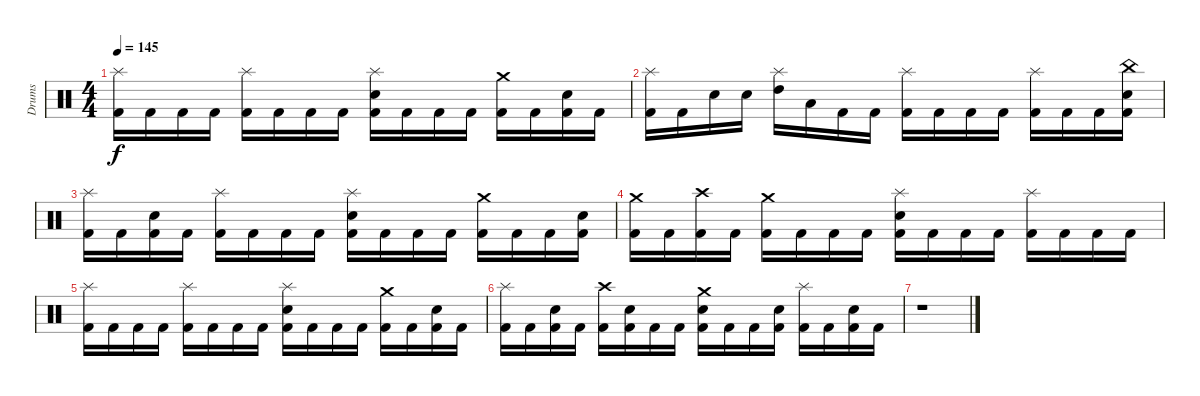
\track ("Drums" "Drums") {instrument percussion}
\staff {score}
\articulation defaults
\ts (4 4)
\tempo 145
\clef neutral
\ks c
("Splash (hit)" "Kick (hit) 2").16{dy f} "Kick (hit) 2".16 "Kick (hit) 2".16 "Kick (hit) 2".16 ("Splash (hit)" "Kick (hit) 2").16 "Kick (hit) 2".16 "Kick (hit) 2".16 "Kick (hit) 2".16 ("Splash (hit)" "Electric Snare (hit)" "Kick (hit) 2").16 "Kick (hit) 2".16 "Kick (hit) 2".16 "Kick (hit) 2".16 ("Crash medium (hit)" "Kick (hit) 2").16 "Kick (hit) 2".16 ("Electric Snare (hit)" "Kick (hit) 2").16 "Kick (hit) 2".16 |
("Splash (hit)" "Kick (hit) 2").16 "Kick (hit) 2".16 "Electric Snare (hit)".16 "Electric Snare (hit)".16 ("Splash (hit)" "High Tom (hit)").16 "Low Tom (hit)".16 "Kick (hit) 2".16 "Kick (hit) 2".16 ("Splash (hit)" "Kick (hit) 2").16 "Kick (hit) 2".16 "Kick (hit) 2".16 "Kick (hit) 2".16 ("Splash (hit)" "Kick (hit) 2").16 "Kick (hit) 2".16 "Kick (hit) 2".16 ("China (hit)" "Electric Snare (hit)" "Kick (hit) 2").16 |
("Splash (hit)" "Kick (hit) 2").16 "Kick (hit) 2".16 ("Electric Snare (hit)" "Kick (hit) 2").16 "Kick (hit) 2".16 ("Splash (hit)" "Kick (hit) 2").16 "Kick (hit) 2".16 "Kick (hit) 2".16 "Kick (hit) 2".16 ("Splash (hit)" "Electric Snare (hit)" "Kick (hit) 2").16 "Kick (hit) 2".16 "Kick (hit) 2".16 "Kick (hit) 2".16 ("Crash medium (hit)" "Kick (hit) 2").16 "Kick (hit) 2".16 "Kick (hit) 2".16 ("Electric Snare (hit)" "Kick (hit) 2").16 |
("Crash medium (hit)" "Kick (hit) 2").16 "Kick (hit) 2".16 ("Crash high (hit)" "Kick (hit) 2").16 "Kick (hit) 2".16 ("Crash medium (hit)" "Kick (hit) 2").16 "Kick (hit) 2".16 "Kick (hit) 2".16 "Kick (hit) 2".16 ("Splash (hit)" "Electric Snare (hit)" "Kick (hit) 2").16 "Kick (hit) 2".16 "Kick (hit) 2".16 "Kick (hit) 2".16 ("Splash (hit)" "Kick (hit) 2").16 "Kick (hit) 2".16 "Kick (hit) 2".16 "Kick (hit) 2".16 |
("Splash (hit)" "Kick (hit) 2").16 "Kick (hit) 2".16 "Kick (hit) 2".16 "Kick (hit) 2".16 ("Splash (hit)" "Kick (hit) 2").16 "Kick (hit) 2".16 "Kick (hit) 2".16 "Kick (hit) 2".16 ("Splash (hit)" "Electric Snare (hit)" "Kick (hit) 2").16 "Kick (hit) 2".16 "Kick (hit) 2".16 "Kick (hit) 2".16 ("Crash medium (hit)" "Kick (hit) 2").16 "Kick (hit) 2".16 ("Electric Snare (hit)" "Kick (hit) 2").16 "Kick (hit) 2".16 |
("Splash (hit)" "Kick (hit) 2").16 "Kick (hit) 2".16 ("Electric Snare (hit)" "Kick (hit) 2").16 "Kick (hit) 2".16 ("Crash high (hit)" "Kick (hit) 2").16 ("Electric Snare (hit)" "Kick (hit) 2").16 "Kick (hit) 2".16 "Kick (hit) 2".16 ("Crash medium (hit)" "Electric Snare (hit)" "Kick (hit) 2").16 "Kick (hit) 2".16 "Kick (hit) 2".16 ("Electric Snare (hit)" "Kick (hit) 2").16 ("Splash (hit)" "Kick (hit) 2").16 "Kick (hit) 2".16 ("Electric Snare (hit)" "Kick (hit) 2").16 "Kick (hit) 2".16 |
r.1
